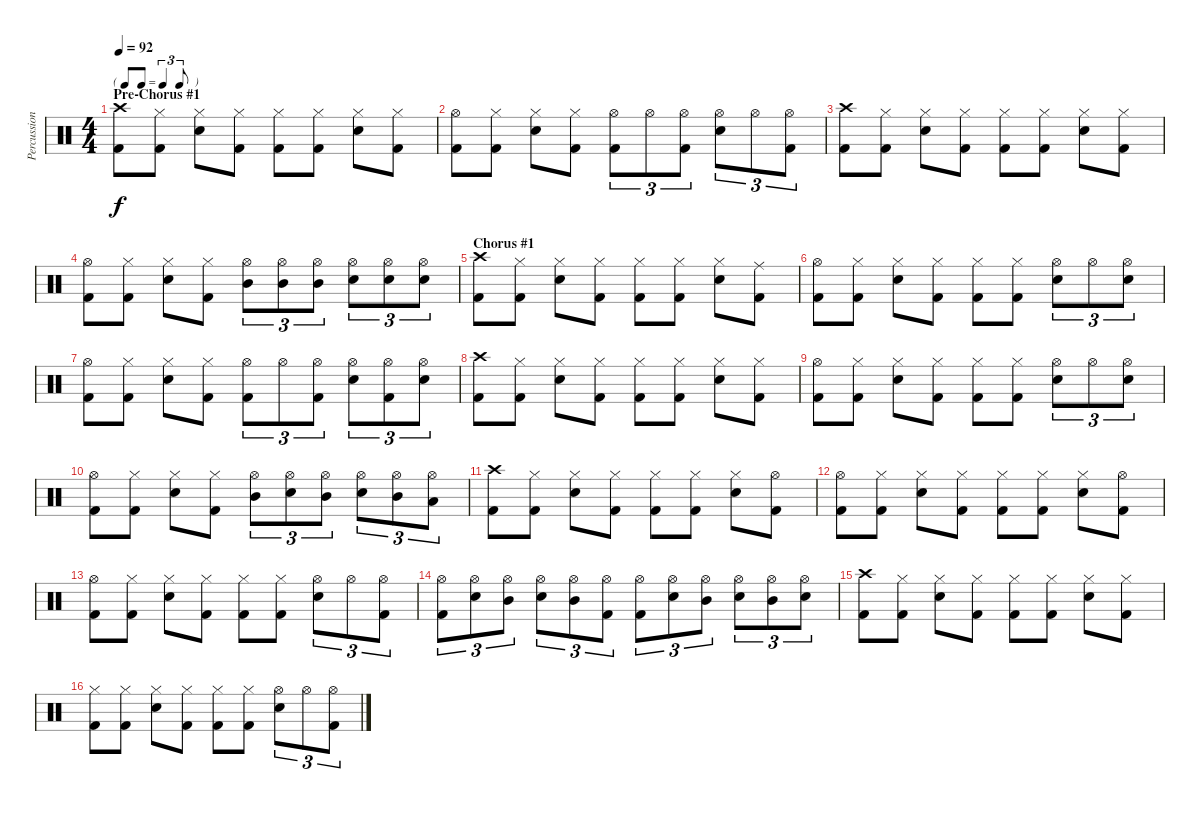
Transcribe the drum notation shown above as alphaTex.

\track ("Percussion" "Percussion") {instrument percussion}
\staff {score}
\articulation defaults
\ts (4 4)
\tf triplet8th
\section ("" "Pre-Chorus #1")
\tempo 92
\clef neutral
\ks c
("Crash high (hit)" "Kick (hit) 2").8{dy f} ("Hi-Hat (closed)" "Kick (hit) 2").8 ("Hi-Hat (closed)" "Electric Snare (hit)").8 ("Hi-Hat (closed)" "Kick (hit) 2").8 ("Hi-Hat (closed)" "Kick (hit) 2").8 ("Hi-Hat (closed)" "Kick (hit) 2").8 ("Hi-Hat (closed)" "Electric Snare (hit)").8 ("Hi-Hat (closed)" "Kick (hit) 2").8 |
("Hi-Hat (open)" "Kick (hit) 2").8 ("Hi-Hat (closed)" "Kick (hit) 2").8 ("Hi-Hat (closed)" "Electric Snare (hit)").8 ("Hi-Hat (closed)" "Kick (hit) 2").8 ("Hi-Hat (open)" "Kick (hit) 2").8{tu (3 2)} "Hi-Hat (open)".8{tu (3 2)} ("Hi-Hat (open)" "Kick (hit) 2").8{tu (3 2)} ("Hi-Hat (open)" "Electric Snare (hit)").8{tu (3 2)} "Hi-Hat (open)".8{tu (3 2)} ("Hi-Hat (open)" "Kick (hit) 2").8{tu (3 2)} |
("Crash high (hit)" "Kick (hit) 2").8 ("Hi-Hat (closed)" "Kick (hit) 2").8 ("Hi-Hat (closed)" "Electric Snare (hit)").8 ("Hi-Hat (closed)" "Kick (hit) 2").8 ("Hi-Hat (closed)" "Kick (hit) 2").8 ("Hi-Hat (closed)" "Kick (hit) 2").8 ("Hi-Hat (closed)" "Electric Snare (hit)").8 ("Hi-Hat (closed)" "Kick (hit) 2").8 |
("Hi-Hat (open)" "Kick (hit) 2").8 ("Hi-Hat (closed)" "Kick (hit) 2").8 ("Hi-Hat (closed)" "Electric Snare (hit)").8 ("Hi-Hat (closed)" "Kick (hit) 2").8 ("Hi-Hat (open)" "Mid Tom (hit)").8{tu (3 2)} ("Hi-Hat (open)" "Mid Tom (hit)").8{tu (3 2)} ("Hi-Hat (open)" "Mid Tom (hit)").8{tu (3 2)} ("Hi-Hat (open)" "Electric Snare (hit)").8{tu (3 2)} ("Hi-Hat (open)" "Electric Snare (hit)").8{tu (3 2)} ("Hi-Hat (open)" "Electric Snare (hit)").8{tu (3 2)} |
\section ("" "Chorus #1")
("Crash high (hit)" "Kick (hit) 2").8 ("Hi-Hat (closed)" "Kick (hit) 2").8 ("Hi-Hat (closed)" "Electric Snare (hit)").8 ("Hi-Hat (closed)" "Kick (hit) 2").8 ("Hi-Hat (closed)" "Kick (hit) 2").8 ("Hi-Hat (closed)" "Kick (hit) 2").8 ("Hi-Hat (closed)" "Electric Snare (hit)").8 ("Ride (middle)" "Kick (hit) 2").8 |
("Hi-Hat (open)" "Kick (hit) 2").8 ("Hi-Hat (closed)" "Kick (hit) 2").8 ("Hi-Hat (closed)" "Electric Snare (hit)").8 ("Hi-Hat (closed)" "Kick (hit) 2").8 ("Hi-Hat (closed)" "Kick (hit) 2").8 ("Hi-Hat (closed)" "Kick (hit) 2").8 ("Hi-Hat (open)" "Electric Snare (hit)").8{tu (3 2)} "Hi-Hat (open)".8{tu (3 2)} ("Hi-Hat (open)" "Electric Snare (hit)").8{tu (3 2)} |
("Hi-Hat (open)" "Kick (hit) 2").8 ("Hi-Hat (closed)" "Kick (hit) 2").8 ("Hi-Hat (closed)" "Electric Snare (hit)").8 ("Hi-Hat (closed)" "Kick (hit) 2").8 ("Hi-Hat (open)" "Kick (hit) 2").8{tu (3 2)} "Hi-Hat (open)".8{tu (3 2)} ("Hi-Hat (open)" "Kick (hit) 2").8{tu (3 2)} ("Hi-Hat (open)" "Electric Snare (hit)").8{tu (3 2)} ("Hi-Hat (open)" "Kick (hit) 2").8{tu (3 2)} ("Hi-Hat (open)" "Electric Snare (hit)").8{tu (3 2)} |
("Crash high (hit)" "Kick (hit) 2").8 ("Hi-Hat (closed)" "Kick (hit) 2").8 ("Hi-Hat (closed)" "Electric Snare (hit)").8 ("Hi-Hat (closed)" "Kick (hit) 2").8 ("Hi-Hat (closed)" "Kick (hit) 2").8 ("Hi-Hat (closed)" "Kick (hit) 2").8 ("Hi-Hat (closed)" "Electric Snare (hit)").8 ("Hi-Hat (closed)" "Kick (hit) 2").8 |
("Hi-Hat (open)" "Kick (hit) 2").8 ("Hi-Hat (closed)" "Kick (hit) 2").8 ("Hi-Hat (closed)" "Electric Snare (hit)").8 ("Hi-Hat (closed)" "Kick (hit) 2").8 ("Hi-Hat (closed)" "Kick (hit) 2").8 ("Hi-Hat (closed)" "Kick (hit) 2").8 ("Hi-Hat (open)" "Electric Snare (hit)").8{tu (3 2)} "Hi-Hat (open)".8{tu (3 2)} ("Hi-Hat (open)" "Electric Snare (hit)").8{tu (3 2)} |
("Hi-Hat (open)" "Kick (hit) 2").8 ("Hi-Hat (closed)" "Kick (hit) 2").8 ("Hi-Hat (closed)" "Electric Snare (hit)").8 ("Hi-Hat (closed)" "Kick (hit) 2").8 ("Hi-Hat (open)" "Mid Tom (hit)").8{tu (3 2)} ("Hi-Hat (open)" "Electric Snare (hit)").8{tu (3 2)} ("Hi-Hat (open)" "Mid Tom (hit)").8{tu (3 2)} ("Hi-Hat (open)" "Electric Snare (hit)").8{tu (3 2)} ("Hi-Hat (open)" "Mid Tom (hit)").8{tu (3 2)} ("Hi-Hat (open)" "Low Tom (hit)").8{tu (3 2)} |
("Crash high (hit)" "Kick (hit) 2").8 ("Hi-Hat (closed)" "Kick (hit) 2").8 ("Hi-Hat (closed)" "Electric Snare (hit)").8 ("Hi-Hat (closed)" "Kick (hit) 2").8 ("Hi-Hat (closed)" "Kick (hit) 2").8 ("Hi-Hat (closed)" "Kick (hit) 2").8 ("Hi-Hat (closed)" "Electric Snare (hit)").8 ("Hi-Hat (open)" "Kick (hit) 2").8 |
("Hi-Hat (open)" "Kick (hit) 2").8 ("Hi-Hat (closed)" "Kick (hit) 2").8 ("Hi-Hat (closed)" "Electric Snare (hit)").8 ("Hi-Hat (closed)" "Kick (hit) 2").8 ("Hi-Hat (closed)" "Kick (hit) 2").8 ("Hi-Hat (closed)" "Kick (hit) 2").8 ("Hi-Hat (closed)" "Electric Snare (hit)").8 ("Hi-Hat (open)" "Kick (hit) 2").8 |
("Hi-Hat (open)" "Kick (hit) 2").8 ("Hi-Hat (closed)" "Kick (hit) 2").8 ("Hi-Hat (closed)" "Electric Snare (hit)").8 ("Hi-Hat (closed)" "Kick (hit) 2").8 ("Hi-Hat (closed)" "Kick (hit) 2").8 ("Hi-Hat (closed)" "Kick (hit) 2").8 ("Hi-Hat (open)" "Electric Snare (hit)").8{tu (3 2)} "Hi-Hat (open)".8{tu (3 2)} ("Hi-Hat (open)" "Kick (hit) 2").8{tu (3 2)} |
("Hi-Hat (open)" "Kick (hit) 2").8{tu (3 2)} ("Hi-Hat (open)" "Electric Snare (hit)").8{tu (3 2)} ("Hi-Hat (open)" "Mid Tom (hit)").8{tu (3 2)} ("Hi-Hat (open)" "Electric Snare (hit)").8{tu (3 2)} ("Hi-Hat (open)" "Mid Tom (hit)").8{tu (3 2)} ("Hi-Hat (open)" "Kick (hit) 2").8{tu (3 2)} ("Hi-Hat (open)" "Kick (hit) 2").8{tu (3 2)} ("Hi-Hat (open)" "Electric Snare (hit)").8{tu (3 2)} ("Hi-Hat (open)" "Mid Tom (hit)").8{tu (3 2)} ("Hi-Hat (open)" "Electric Snare (hit)").8{tu (3 2)} ("Hi-Hat (open)" "Mid Tom (hit)").8{tu (3 2)} ("Hi-Hat (open)" "Electric Snare (hit)").8{tu (3 2)} |
("Crash high (hit)" "Kick (hit) 2").8 ("Hi-Hat (closed)" "Kick (hit) 2").8 ("Hi-Hat (closed)" "Electric Snare (hit)").8 ("Hi-Hat (closed)" "Kick (hit) 2").8 ("Hi-Hat (closed)" "Kick (hit) 2").8 ("Hi-Hat (closed)" "Kick (hit) 2").8 ("Hi-Hat (closed)" "Electric Snare (hit)").8 ("Hi-Hat (closed)" "Kick (hit) 2").8 |
("Hi-Hat (closed)" "Kick (hit) 2").8 ("Hi-Hat (closed)" "Kick (hit) 2").8 ("Hi-Hat (closed)" "Electric Snare (hit)").8 ("Hi-Hat (closed)" "Kick (hit) 2").8 ("Hi-Hat (closed)" "Kick (hit) 2").8 ("Hi-Hat (closed)" "Kick (hit) 2").8 ("Hi-Hat (open)" "Electric Snare (hit)").8{tu (3 2)} "Hi-Hat (open)".8{tu (3 2)} ("Hi-Hat (open)" "Kick (hit) 2").8{tu (3 2)}
